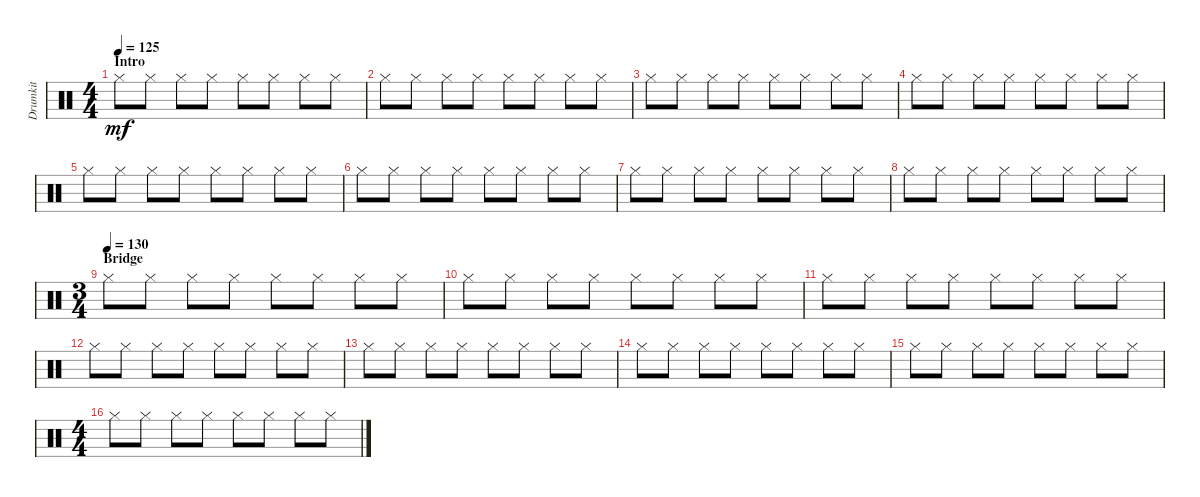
\track ("Drumkit" "Drumkit") {mute instrument percussion}
\staff {score}
\articulation defaults
\ts (4 4)
\section ("" "Intro")
\tempo 125
\clef neutral
\ks c "Hi-Hat (closed)".8{dy mf} "Hi-Hat (closed)".8 "Hi-Hat (closed)".8 "Hi-Hat (closed)".8 "Hi-Hat (closed)".8 "Hi-Hat (closed)".8 "Hi-Hat (closed)".8 "Hi-Hat (closed)".8
|
"Hi-Hat (closed)".8 "Hi-Hat (closed)".8 "Hi-Hat (closed)".8 "Hi-Hat (closed)".8 "Hi-Hat (closed)".8 "Hi-Hat (closed)".8 "Hi-Hat (closed)".8 "Hi-Hat (closed)".8 |
"Hi-Hat (closed)".8 "Hi-Hat (closed)".8 "Hi-Hat (closed)".8 "Hi-Hat (closed)".8 "Hi-Hat (closed)".8 "Hi-Hat (closed)".8 "Hi-Hat (closed)".8 "Hi-Hat (closed)".8 |
"Hi-Hat (closed)".8 "Hi-Hat (closed)".8 "Hi-Hat (closed)".8 "Hi-Hat (closed)".8 "Hi-Hat (closed)".8 "Hi-Hat (closed)".8 "Hi-Hat (closed)".8 "Hi-Hat (closed)".8 |
"Hi-Hat (closed)".8 "Hi-Hat (closed)".8 "Hi-Hat (closed)".8 "Hi-Hat (closed)".8 "Hi-Hat (closed)".8 "Hi-Hat (closed)".8 "Hi-Hat (closed)".8 "Hi-Hat (closed)".8 |
"Hi-Hat (closed)".8 "Hi-Hat (closed)".8 "Hi-Hat (closed)".8 "Hi-Hat (closed)".8 "Hi-Hat (closed)".8 "Hi-Hat (closed)".8 "Hi-Hat (closed)".8 "Hi-Hat (closed)".8 |
"Hi-Hat (closed)".8 "Hi-Hat (closed)".8 "Hi-Hat (closed)".8 "Hi-Hat (closed)".8 "Hi-Hat (closed)".8 "Hi-Hat (closed)".8 "Hi-Hat (closed)".8 "Hi-Hat (closed)".8 |
"Hi-Hat (closed)".8 "Hi-Hat (closed)".8 "Hi-Hat (closed)".8 "Hi-Hat (closed)".8 "Hi-Hat (closed)".8 "Hi-Hat (closed)".8 "Hi-Hat (closed)".8 "Hi-Hat (closed)".8 |
\ts (3 4)
\section ("" "Bridge")
\tempo (130)
"Hi-Hat (closed)".8 "Hi-Hat (closed)".8 "Hi-Hat (closed)".8 "Hi-Hat (closed)".8 "Hi-Hat (closed)".8 "Hi-Hat (closed)".8 "Hi-Hat (closed)".8 "Hi-Hat (closed)".8 |
"Hi-Hat (closed)".8 "Hi-Hat (closed)".8 "Hi-Hat (closed)".8 "Hi-Hat (closed)".8 "Hi-Hat (closed)".8 "Hi-Hat (closed)".8 "Hi-Hat (closed)".8 "Hi-Hat (closed)".8 |
"Hi-Hat (closed)".8 "Hi-Hat (closed)".8 "Hi-Hat (closed)".8 "Hi-Hat (closed)".8 "Hi-Hat (closed)".8 "Hi-Hat (closed)".8 "Hi-Hat (closed)".8 "Hi-Hat (closed)".8 |
"Hi-Hat (closed)".8 "Hi-Hat (closed)".8 "Hi-Hat (closed)".8 "Hi-Hat (closed)".8 "Hi-Hat (closed)".8 "Hi-Hat (closed)".8 "Hi-Hat (closed)".8 "Hi-Hat (closed)".8 |
"Hi-Hat (closed)".8 "Hi-Hat (closed)".8 "Hi-Hat (closed)".8 "Hi-Hat (closed)".8 "Hi-Hat (closed)".8 "Hi-Hat (closed)".8 "Hi-Hat (closed)".8 "Hi-Hat (closed)".8 |
"Hi-Hat (closed)".8 "Hi-Hat (closed)".8 "Hi-Hat (closed)".8 "Hi-Hat (closed)".8 "Hi-Hat (closed)".8 "Hi-Hat (closed)".8 "Hi-Hat (closed)".8 "Hi-Hat (closed)".8 |
"Hi-Hat (closed)".8 "Hi-Hat (closed)".8 "Hi-Hat (closed)".8 "Hi-Hat (closed)".8 "Hi-Hat (closed)".8 "Hi-Hat (closed)".8 "Hi-Hat (closed)".8 "Hi-Hat (closed)".8 |
\ts (4 4)
"Hi-Hat (closed)".8 "Hi-Hat (closed)".8 "Hi-Hat (closed)".8 "Hi-Hat (closed)".8 "Hi-Hat (closed)".8 "Hi-Hat (closed)".8 "Hi-Hat (closed)".8 "Hi-Hat (closed)".8
